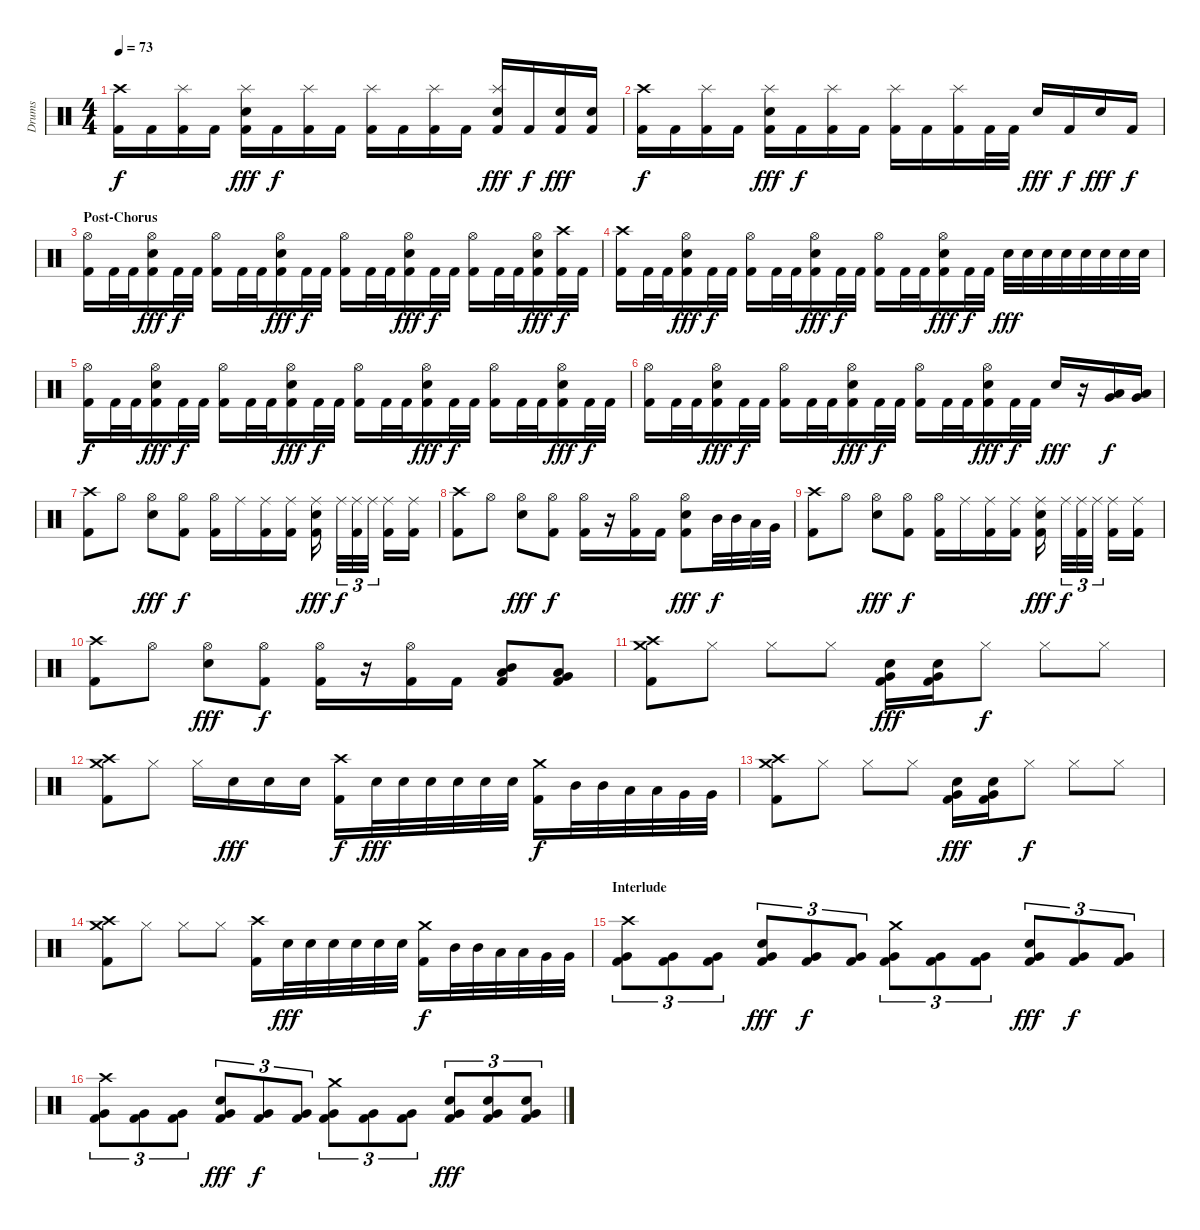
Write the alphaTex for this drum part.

\track ("Drums" "Drums") {instrument percussion}
\staff {score}
\articulation defaults
\ts (4 4)
\tempo 73
\clef neutral
\ks c
("Crash high (hit)" "Kick (hit) 2").16{dy f} "Kick (hit) 2".16 ("Splash (hit)" "Kick (hit) 2").16 "Kick (hit) 2".16 ("Splash (hit)" "Snare (hit) 2" "Kick (hit) 2").16{dy fff} "Kick (hit) 2".16{dy f} ("Splash (hit)" "Kick (hit) 2").16 "Kick (hit) 2".16 ("Splash (hit)" "Kick (hit) 2").16 "Kick (hit) 2".16 ("Splash (hit)" "Kick (hit) 2").16 "Kick (hit) 2".16 ("Splash (hit)" "Snare (hit) 2" "Kick (hit) 2").16{dy fff} "Kick (hit) 2".16{dy f} ("Snare (hit) 2" "Kick (hit) 2").16{dy fff} ("Snare (hit) 2" "Kick (hit) 2").16 |
("Crash high (hit)" "Kick (hit) 2").16{dy f} "Kick (hit) 2".16 ("Splash (hit)" "Kick (hit) 2").16 "Kick (hit) 2".16 ("Splash (hit)" "Snare (hit) 2" "Kick (hit) 2").16{dy fff} "Kick (hit) 2".16{dy f} ("Splash (hit)" "Kick (hit) 2").16 "Kick (hit) 2".16 ("Splash (hit)" "Kick (hit) 2").16 "Kick (hit) 2".16 ("Splash (hit)" "Kick (hit) 2").16 "Kick (hit) 2".32 "Kick (hit) 2".32 "Snare (hit) 2".16{dy fff} "Kick (hit) 2".16{dy f} "Snare (hit) 2".16{dy fff} "Kick (hit) 2".16{dy f} |
\section ("" "Post-Chorus")
("Hi-Hat (open)" "Kick (hit) 2").16 "Kick (hit) 2".32 "Kick (hit) 2".32 ("Hi-Hat (open)" "Snare (hit) 2" "Kick (hit) 2").16{dy fff} "Kick (hit) 2".32{dy f} "Kick (hit) 2".32 ("Hi-Hat (open)" "Kick (hit) 2").16 "Kick (hit) 2".32 "Kick (hit) 2".32 ("Hi-Hat (open)" "Snare (hit) 2" "Kick (hit) 2").16{dy fff} "Kick (hit) 2".32{dy f} "Kick (hit) 2".32 ("Hi-Hat (open)" "Kick (hit) 2").16 "Kick (hit) 2".32 "Kick (hit) 2".32 ("Hi-Hat (open)" "Snare (hit) 2" "Kick (hit) 2").16{dy fff} "Kick (hit) 2".32{dy f} "Kick (hit) 2".32 ("Hi-Hat (open)" "Kick (hit) 2").16 "Kick (hit) 2".32 "Kick (hit) 2".32 ("Hi-Hat (open)" "Snare (hit) 2" "Kick (hit) 2").16{dy fff} ("Crash high (hit)" "Kick (hit) 2").32{dy f} "Kick (hit) 2".32 |
("Crash high (hit)" "Kick (hit) 2").16 "Kick (hit) 2".32 "Kick (hit) 2".32 ("Hi-Hat (open)" "Snare (hit) 2" "Kick (hit) 2").16{dy fff} "Kick (hit) 2".32{dy f} "Kick (hit) 2".32 ("Hi-Hat (open)" "Kick (hit) 2").16 "Kick (hit) 2".32 "Kick (hit) 2".32 ("Hi-Hat (open)" "Snare (hit) 2" "Kick (hit) 2").16{dy fff} "Kick (hit) 2".32{dy f} "Kick (hit) 2".32 ("Hi-Hat (open)" "Kick (hit) 2").16 "Kick (hit) 2".32 "Kick (hit) 2".32 ("Hi-Hat (open)" "Snare (hit) 2" "Kick (hit) 2").16{dy fff} "Kick (hit) 2".32{dy f} "Kick (hit) 2".32 "Snare (hit) 2".32{dy fff} "Snare (hit) 2".32 "Snare (hit) 2".32 "Snare (hit) 2".32 "Snare (hit) 2".32 "Snare (hit) 2".32 "Snare (hit) 2".32 "Snare (hit) 2".32 |
("Hi-Hat (open)" "Kick (hit) 2").16{dy f} "Kick (hit) 2".32 "Kick (hit) 2".32 ("Hi-Hat (open)" "Snare (hit) 2" "Kick (hit) 2").16{dy fff} "Kick (hit) 2".32{dy f} "Kick (hit) 2".32 ("Hi-Hat (open)" "Kick (hit) 2").16 "Kick (hit) 2".32 "Kick (hit) 2".32 ("Hi-Hat (open)" "Snare (hit) 2" "Kick (hit) 2").16{dy fff} "Kick (hit) 2".32{dy f} "Kick (hit) 2".32 ("Hi-Hat (open)" "Kick (hit) 2").16 "Kick (hit) 2".32 "Kick (hit) 2".32 ("Hi-Hat (open)" "Snare (hit) 2" "Kick (hit) 2").16{dy fff} "Kick (hit) 2".32{dy f} "Kick (hit) 2".32 ("Hi-Hat (open)" "Kick (hit) 2").16 "Kick (hit) 2".32 "Kick (hit) 2".32 ("Hi-Hat (open)" "Snare (hit) 2" "Kick (hit) 2").16{dy fff} "Kick (hit) 2".32{dy f} "Kick (hit) 2".32 |
("Hi-Hat (open)" "Kick (hit) 2").16 "Kick (hit) 2".32 "Kick (hit) 2".32 ("Hi-Hat (open)" "Snare (hit) 2" "Kick (hit) 2").16{dy fff} "Kick (hit) 2".32{dy f} "Kick (hit) 2".32 ("Hi-Hat (open)" "Kick (hit) 2").16 "Kick (hit) 2".32 "Kick (hit) 2".32 ("Hi-Hat (open)" "Snare (hit) 2" "Kick (hit) 2").16{dy fff} "Kick (hit) 2".32{dy f} "Kick (hit) 2".32 ("Hi-Hat (open)" "Kick (hit) 2").16 "Kick (hit) 2".32 "Kick (hit) 2".32 ("Hi-Hat (open)" "Snare (hit) 2" "Kick (hit) 2").16{dy fff} "Kick (hit) 2".32{dy f} "Kick (hit) 2".32 "Snare (hit) 2".16{dy fff} r.16 ("Very Low Tom (hit)" "Low Tom (hit)").16{dy f} ("Very Low Tom (hit)" "Low Tom (hit)").16 |
("Crash high (hit)" "Kick (hit) 2").8 "Hi-Hat (open)".8 ("Hi-Hat (open)" "Snare (hit) 2").8{dy fff} ("Hi-Hat (open)" "Kick (hit) 2").8{dy f} ("Hi-Hat (open)" "Kick (hit) 2").16 "Ride (middle)".16 ("Ride (middle)" "Kick (hit) 2").16 ("Ride (middle)" "Kick (hit) 2").16 ("Ride (middle)" "Snare (hit) 2" "Kick (hit) 2").16{dy fff} "Ride (middle)".32{tu (3 2) dy f} ("Ride (middle)" "Kick (hit) 2").32{tu (3 2)} "Ride (middle)".32{tu (3 2)} ("Ride (middle)" "Kick (hit) 2").16 ("Ride (middle)" "Kick (hit) 2").16 |
("Crash high (hit)" "Kick (hit) 2").8 "Hi-Hat (open)".8 ("Hi-Hat (open)" "Snare (hit) 2").8{dy fff} ("Hi-Hat (open)" "Kick (hit) 2").8{dy f} ("Hi-Hat (open)" "Kick (hit) 2").16 r.16 ("Hi-Hat (open)" "Kick (hit) 2").16 "Kick (hit) 2".16 ("Hi-Hat (open)" "Snare (hit) 2" "Kick (hit) 2").8{dy fff} "Mid Tom (hit)".32{dy f} "Mid Tom (hit)".32 "Low Tom (hit)".32 "Very Low Tom (hit)".32 |
("Crash high (hit)" "Kick (hit) 2").8 "Hi-Hat (open)".8 ("Hi-Hat (open)" "Snare (hit) 2").8{dy fff} ("Hi-Hat (open)" "Kick (hit) 2").8{dy f} ("Hi-Hat (open)" "Kick (hit) 2").16 "Ride (middle)".16 ("Ride (middle)" "Kick (hit) 2").16 ("Ride (middle)" "Kick (hit) 2").16 ("Ride (middle)" "Snare (hit) 2" "Kick (hit) 2").16{dy fff} "Ride (middle)".32{tu (3 2) dy f} ("Ride (middle)" "Kick (hit) 2").32{tu (3 2)} "Ride (middle)".32{tu (3 2)} ("Ride (middle)" "Kick (hit) 2").16 ("Ride (middle)" "Kick (hit) 2").16 |
("Crash high (hit)" "Kick (hit) 2").8 "Hi-Hat (open)".8 ("Hi-Hat (open)" "Snare (hit) 2").8{dy fff} ("Hi-Hat (open)" "Kick (hit) 2").8{dy f} ("Hi-Hat (open)" "Kick (hit) 2").16 r.16 ("Hi-Hat (open)" "Kick (hit) 2").16 "Kick (hit) 2".16 ("Mid Tom (hit)" "Low Tom (hit)" "Kick (hit) 2").8 ("Low Tom (hit)" "Very Low Tom (hit)" "Kick (hit) 2").8 |
("Crash high (hit)" "Crash medium (hit)" "Kick (hit) 2").8 "Hi-Hat (closed)".8 "Hi-Hat (closed)".8 "Hi-Hat (closed)".8 ("Snare (hit) 2" "Very Low Tom (hit)" "Kick (hit) 2").16{dy fff} ("Snare (hit) 2" "Very Low Tom (hit)" "Kick (hit) 2").16 "Hi-Hat (closed)".8{dy f} "Hi-Hat (closed)".8 "Hi-Hat (closed)".8 |
("Crash high (hit)" "Crash medium (hit)" "Kick (hit) 2").8 "Hi-Hat (closed)".8 "Hi-Hat (closed)".16 "Snare (hit) 2".16{dy fff} "Snare (hit) 2".16 "Snare (hit) 2".16 ("Crash high (hit)" "Kick (hit) 2").16{dy f} "Snare (hit) 2".32{dy fff} "Snare (hit) 2".32 "Snare (hit) 2".32 "Snare (hit) 2".32 "Snare (hit) 2".32 "Snare (hit) 2".32 ("Crash medium (hit)" "Kick (hit) 2").16{dy f} "Mid Tom (hit)".32 "Mid Tom (hit)".32 "Low Tom (hit)".32 "Low Tom (hit)".32 "Very Low Tom (hit)".32 "Very Low Tom (hit)".32 |
("Crash high (hit)" "Crash medium (hit)" "Kick (hit) 2").8 "Hi-Hat (closed)".8 "Hi-Hat (closed)".8 "Hi-Hat (closed)".8 ("Snare (hit) 2" "Very Low Tom (hit)" "Kick (hit) 2").16{dy fff} ("Snare (hit) 2" "Very Low Tom (hit)" "Kick (hit) 2").16 "Hi-Hat (closed)".8{dy f} "Hi-Hat (closed)".8 "Hi-Hat (closed)".8 |
("Crash high (hit)" "Crash medium (hit)" "Kick (hit) 2").8 "Hi-Hat (closed)".8 "Hi-Hat (closed)".8 "Hi-Hat (closed)".8 ("Crash high (hit)" "Kick (hit) 2").16 "Snare (hit) 2".32{dy fff} "Snare (hit) 2".32 "Snare (hit) 2".32 "Snare (hit) 2".32 "Snare (hit) 2".32 "Snare (hit) 2".32 ("Crash medium (hit)" "Kick (hit) 2").16{dy f} "Mid Tom (hit)".32 "Mid Tom (hit)".32 "Low Tom (hit)".32 "Low Tom (hit)".32 "Very Low Tom (hit)".32 "Very Low Tom (hit)".32 |
\section ("" "Interlude")
("Crash high (hit)" "Very Low Tom (hit)" "Kick (hit) 2").8{tu (3 2)} ("Very Low Tom (hit)" "Kick (hit) 2").8{tu (3 2)} ("Very Low Tom (hit)" "Kick (hit) 2").8{tu (3 2)} ("Snare (hit) 2" "Very Low Tom (hit)" "Kick (hit) 2").8{tu (3 2) dy fff} ("Very Low Tom (hit)" "Kick (hit) 2").8{tu (3 2) dy f} ("Very Low Tom (hit)" "Kick (hit) 2").8{tu (3 2)} ("Crash medium (hit)" "Very Low Tom (hit)" "Kick (hit) 2").8{tu (3 2)} ("Very Low Tom (hit)" "Kick (hit) 2").8{tu (3 2)} ("Very Low Tom (hit)" "Kick (hit) 2").8{tu (3 2)} ("Snare (hit) 2" "Very Low Tom (hit)" "Kick (hit) 2").8{tu (3 2) dy fff} ("Very Low Tom (hit)" "Kick (hit) 2").8{tu (3 2) dy f} ("Very Low Tom (hit)" "Kick (hit) 2").8{tu (3 2)} |
("Crash high (hit)" "Very Low Tom (hit)" "Kick (hit) 2").8{tu (3 2)} ("Very Low Tom (hit)" "Kick (hit) 2").8{tu (3 2)} ("Very Low Tom (hit)" "Kick (hit) 2").8{tu (3 2)} ("Snare (hit) 2" "Very Low Tom (hit)" "Kick (hit) 2").8{tu (3 2) dy fff} ("Very Low Tom (hit)" "Kick (hit) 2").8{tu (3 2) dy f} ("Very Low Tom (hit)" "Kick (hit) 2").8{tu (3 2)} ("Crash medium (hit)" "Very Low Tom (hit)" "Kick (hit) 2").8{tu (3 2)} ("Very Low Tom (hit)" "Kick (hit) 2").8{tu (3 2)} ("Very Low Tom (hit)" "Kick (hit) 2").8{tu (3 2)} ("Snare (hit) 2" "Very Low Tom (hit)" "Kick (hit) 2").8{tu (3 2) dy fff} ("Snare (hit) 2" "Very Low Tom (hit)" "Kick (hit) 2").8{tu (3 2)} ("Snare (hit) 2" "Very Low Tom (hit)" "Kick (hit) 2").8{tu (3 2)}
